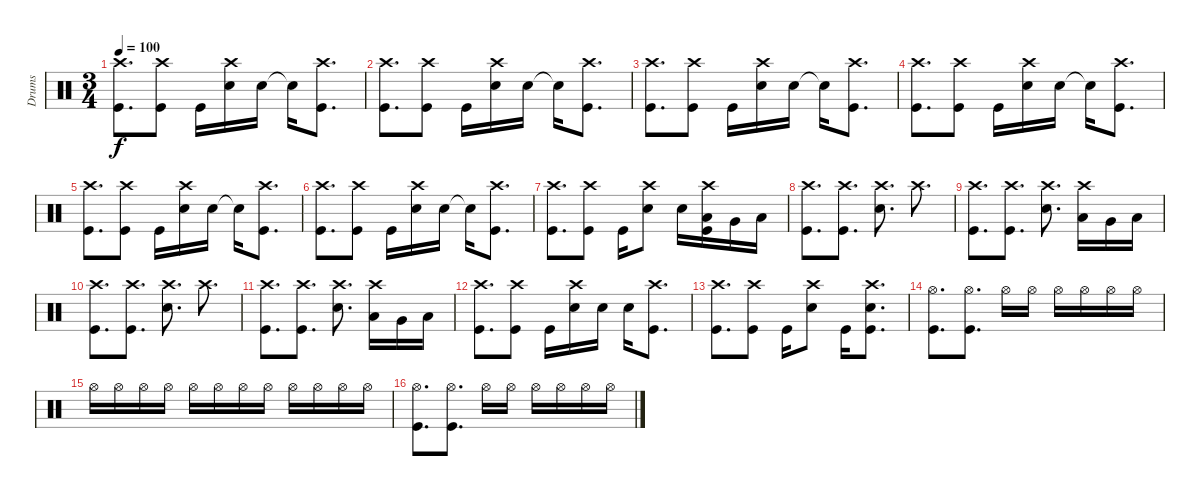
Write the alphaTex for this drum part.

\track ("Drums" "Drums") {instrument percussion}
\staff {score}
\articulation defaults
\ts (3 4)
\tempo 100
\clef neutral
\ks c
("Crash high (hit)" "Kick (hit)").8{d dy f} ("Crash high (hit)" "Kick (hit)").8 "Kick (hit)".16 ("Crash high (hit)" "Snare (hit) 2").16 "Snare (hit) 2".16 "Snare (hit) 2"{t}.16 ("Crash high (hit)" "Kick (hit)").8{d} |
("Crash high (hit)" "Kick (hit)").8{d} ("Crash high (hit)" "Kick (hit)").8 "Kick (hit)".16 ("Crash high (hit)" "Snare (hit) 2").16 "Snare (hit) 2".16 "Snare (hit) 2"{t}.16 ("Crash high (hit)" "Kick (hit)").8{d} |
("Crash high (hit)" "Kick (hit)").8{d} ("Crash high (hit)" "Kick (hit)").8 "Kick (hit)".16 ("Crash high (hit)" "Snare (hit) 2").16 "Snare (hit) 2".16 "Snare (hit) 2"{t}.16 ("Crash high (hit)" "Kick (hit)").8{d} |
("Crash high (hit)" "Kick (hit)").8{d} ("Crash high (hit)" "Kick (hit)").8 "Kick (hit)".16 ("Crash high (hit)" "Snare (hit) 2").16 "Snare (hit) 2".16 "Snare (hit) 2"{t}.16 ("Crash high (hit)" "Kick (hit)").8{d} |
("Crash high (hit)" "Kick (hit)").8{d} ("Crash high (hit)" "Kick (hit)").8 "Kick (hit)".16 ("Crash high (hit)" "Snare (hit) 2").16 "Snare (hit) 2".16 "Snare (hit) 2"{t}.16 ("Crash high (hit)" "Kick (hit)").8{d} |
("Crash high (hit)" "Kick (hit)").8{d} ("Crash high (hit)" "Kick (hit)").8 "Kick (hit)".16 ("Crash high (hit)" "Snare (hit) 2").16 "Snare (hit) 2".16 "Snare (hit) 2"{t}.16 ("Crash high (hit)" "Kick (hit)").8{d} |
("Crash high (hit)" "Kick (hit)").8{d} ("Crash high (hit)" "Kick (hit)").8 "Kick (hit)".16 ("Crash high (hit)" "Snare (hit) 2").8 "Snare (hit) 2".16 ("Crash high (hit)" "Low Tom (hit)" "Kick (hit)").16 "Very Low Tom (hit)".16 "Low Floor Tom (hit)".16 |
("Crash high (hit)" "Kick (hit)").8{d} ("Crash high (hit)" "Kick (hit)").8{d} ("Crash high (hit)" "Snare (hit) 2").8{d} "Crash high (hit)".8{d} |
("Crash high (hit)" "Kick (hit)").8{d} ("Crash high (hit)" "Kick (hit)").8{d} ("Crash high (hit)" "Snare (hit) 2").8{d} ("Crash high (hit)" "Low Floor Tom (hit)").16 "Very Low Tom (hit)".16 "Low Tom (hit)".16 |
("Crash high (hit)" "Kick (hit)").8{d} ("Crash high (hit)" "Kick (hit)").8{d} ("Crash high (hit)" "Snare (hit) 2").8{d} "Crash high (hit)".8{d} |
("Crash high (hit)" "Kick (hit)").8{d} ("Crash high (hit)" "Kick (hit)").8{d} ("Crash high (hit)" "Snare (hit) 2").8{d} ("Crash high (hit)" "Low Floor Tom (hit)").16 "Very Low Tom (hit)".16 "Low Tom (hit)".16 |
("Crash high (hit)" "Kick (hit)").8{d} ("Crash high (hit)" "Kick (hit)").8 "Kick (hit)".16 ("Crash high (hit)" "Snare (hit) 2").16 "Snare (hit) 2".16 "Snare (hit) 2".16 ("Crash high (hit)" "Kick (hit)").8{d} |
("Crash high (hit)" "Kick (hit)").8{d} ("Crash high (hit)" "Kick (hit)").8 "Kick (hit)".16 ("Crash high (hit)" "Snare (hit) 2").8 "Kick (hit)".16 ("Crash high (hit)" "Snare (hit) 2" "Kick (hit)").8{d} |
("Hi-Hat (open)" "Kick (hit)").8{d} ("Hi-Hat (open)" "Kick (hit)").8{d} "Hi-Hat (open)".16 "Hi-Hat (open)".16 "Hi-Hat (open)".16 "Hi-Hat (open)".16 "Hi-Hat (open)".16 "Hi-Hat (open)".16 |
"Hi-Hat (open)".16 "Hi-Hat (open)".16 "Hi-Hat (open)".16 "Hi-Hat (open)".16 "Hi-Hat (open)".16 "Hi-Hat (open)".16 "Hi-Hat (open)".16 "Hi-Hat (open)".16 "Hi-Hat (open)".16 "Hi-Hat (open)".16 "Hi-Hat (open)".16 "Hi-Hat (open)".16 |
("Hi-Hat (open)" "Kick (hit)").8{d} ("Hi-Hat (open)" "Kick (hit)").8{d} "Hi-Hat (open)".16 "Hi-Hat (open)".16 "Hi-Hat (open)".16 "Hi-Hat (open)".16 "Hi-Hat (open)".16 "Hi-Hat (open)".16
